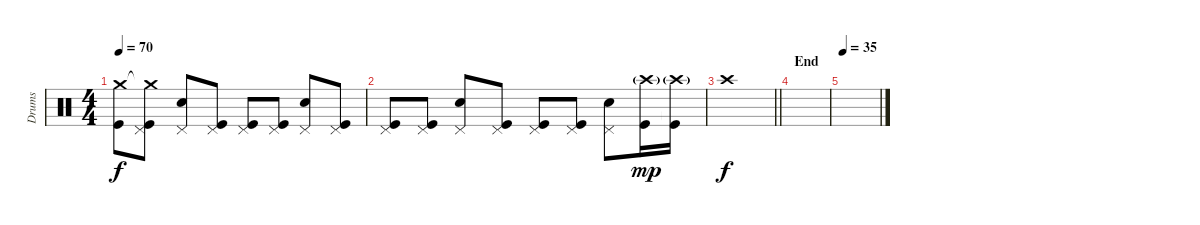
\track ("Drums" "Drums") {instrument percussion}
\staff {score}
\articulation defaults
\ts (4 4)
\tempo 70
\clef neutral
\ks c
("Crash medium (hit)" "Kick (hit)").8{dy f} ("Crash medium (hit)"{t} "Pedal Hi-Hat (hit)" "Kick (hit)").8 ("Pedal Hi-Hat (hit)" "Snare (hit) 2").8 ("Pedal Hi-Hat (hit)" "Kick (hit)").8 ("Pedal Hi-Hat (hit)" "Kick (hit)").8 ("Pedal Hi-Hat (hit)" "Kick (hit)").8 ("Pedal Hi-Hat (hit)" "Snare (hit) 2").8 ("Pedal Hi-Hat (hit)" "Kick (hit)").8 |
("Pedal Hi-Hat (hit)" "Kick (hit)").8 ("Pedal Hi-Hat (hit)" "Kick (hit)").8 ("Pedal Hi-Hat (hit)" "Snare (hit) 2").8 ("Pedal Hi-Hat (hit)" "Kick (hit)").8 ("Pedal Hi-Hat (hit)" "Kick (hit)").8 ("Pedal Hi-Hat (hit)" "Kick (hit)").8 ("Pedal Hi-Hat (hit)" "Snare (hit) 2").8 ("Crash high (hit)"{g} "Kick (hit)").16{dy mp} ("Crash high (hit)"{g} "Kick (hit)"{t}).16 |
\barLineRight lightlight "Crash high (hit)".1{dy f}
|
\section ("" "End")
|
\tempo 35
